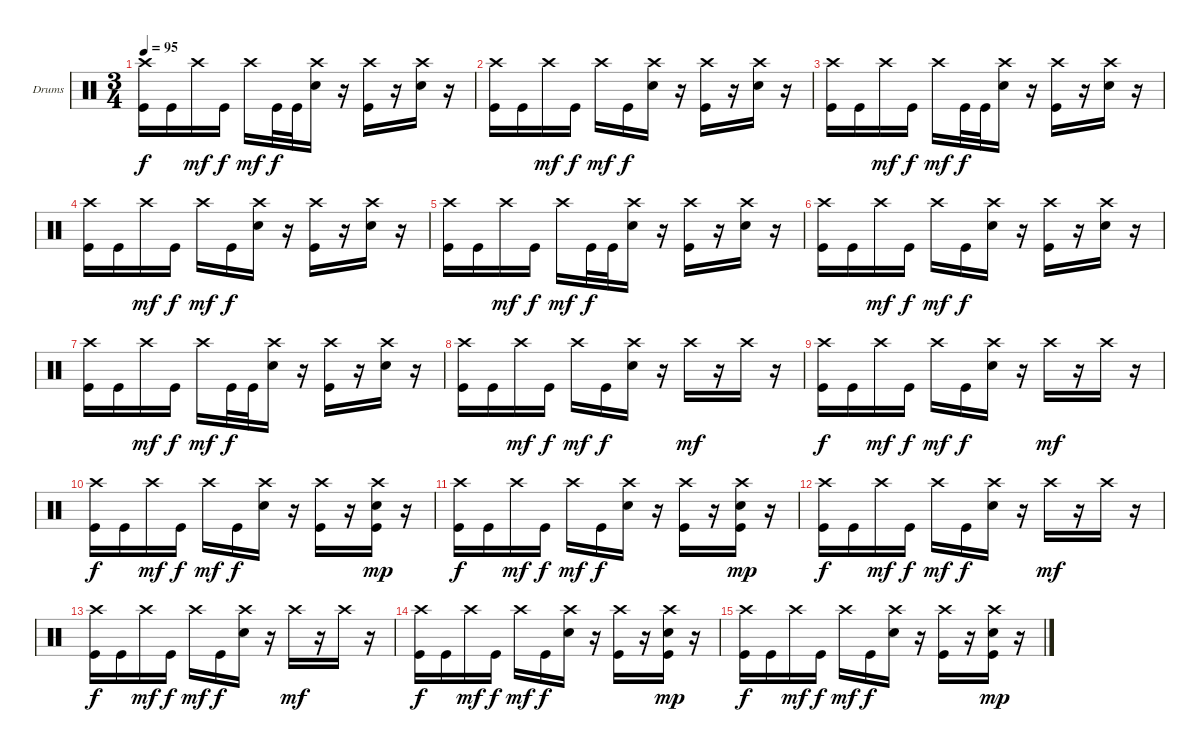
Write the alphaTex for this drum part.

\defaultSystemsLayout 4
\bracketExtendMode groupsimilarinstruments
\firstSystemTrackNameOrientation horizontal
\otherSystemsTrackNameOrientation horizontal
\track ("Drumkit" "Drums") {instrument percussion}
\staff {score}
\articulation defaults
\ts (3 4)
\tempo 95
\clef neutral
\ks c
("Kick (hit)" "Crash high (hit)").16{dy f} "Kick (hit)".16 "Crash high (hit)".16{dy mf} "Kick (hit)".16{dy f} "Crash high (hit)".16{dy mf} "Kick (hit)".32{dy f} "Kick (hit)".32 ("Snare (hit) 2" "Crash high (hit)").16 r.16 ("Kick (hit)" "Crash high (hit)").16 r.16 ("Snare (hit) 2" "Crash high (hit)").16 r.16 |
("Kick (hit)" "Crash high (hit)").16 "Kick (hit)".16 "Crash high (hit)".16{dy mf} "Kick (hit)".16{dy f} "Crash high (hit)".16{dy mf} "Kick (hit)".16{dy f} ("Snare (hit) 2" "Crash high (hit)").16 r.16 ("Kick (hit)" "Crash high (hit)").16 r.16 ("Snare (hit) 2" "Crash high (hit)").16 r.16 |
("Kick (hit)" "Crash high (hit)").16 "Kick (hit)".16 "Crash high (hit)".16{dy mf} "Kick (hit)".16{dy f} "Crash high (hit)".16{dy mf} "Kick (hit)".32{dy f} "Kick (hit)".32 ("Snare (hit) 2" "Crash high (hit)").16 r.16 ("Kick (hit)" "Crash high (hit)").16 r.16 ("Snare (hit) 2" "Crash high (hit)").16 r.16 |
("Kick (hit)" "Crash high (hit)").16 "Kick (hit)".16 "Crash high (hit)".16{dy mf} "Kick (hit)".16{dy f} "Crash high (hit)".16{dy mf} "Kick (hit)".16{dy f} ("Snare (hit) 2" "Crash high (hit)").16 r.16 ("Kick (hit)" "Crash high (hit)").16 r.16 ("Snare (hit) 2" "Crash high (hit)").16 r.16 |
("Kick (hit)" "Crash high (hit)").16 "Kick (hit)".16 "Crash high (hit)".16{dy mf} "Kick (hit)".16{dy f} "Crash high (hit)".16{dy mf} "Kick (hit)".32{dy f} "Kick (hit)".32 ("Snare (hit) 2" "Crash high (hit)").16 r.16 ("Kick (hit)" "Crash high (hit)").16 r.16 ("Snare (hit) 2" "Crash high (hit)").16 r.16 |
("Kick (hit)" "Crash high (hit)").16 "Kick (hit)".16 "Crash high (hit)".16{dy mf} "Kick (hit)".16{dy f} "Crash high (hit)".16{dy mf} "Kick (hit)".16{dy f} ("Snare (hit) 2" "Crash high (hit)").16 r.16 ("Kick (hit)" "Crash high (hit)").16 r.16 ("Snare (hit) 2" "Crash high (hit)").16 r.16 |
("Kick (hit)" "Crash high (hit)").16 "Kick (hit)".16 "Crash high (hit)".16{dy mf} "Kick (hit)".16{dy f} "Crash high (hit)".16{dy mf} "Kick (hit)".32{dy f} "Kick (hit)".32 ("Snare (hit) 2" "Crash high (hit)").16 r.16 ("Kick (hit)" "Crash high (hit)").16 r.16 ("Snare (hit) 2" "Crash high (hit)").16 r.16 |
("Kick (hit)" "Crash high (hit)").16 "Kick (hit)".16 "Crash high (hit)".16{dy mf} "Kick (hit)".16{dy f} "Crash high (hit)".16{dy mf} "Kick (hit)".16{dy f} ("Snare (hit) 2" "Crash high (hit)").16 r.16 "Crash high (hit)".16{dy mf} r.16 "Crash high (hit)".16 r.16 |
("Kick (hit)" "Crash high (hit)").16{dy f} "Kick (hit)".16 "Crash high (hit)".16{dy mf} "Kick (hit)".16{dy f} "Crash high (hit)".16{dy mf} "Kick (hit)".16{dy f} ("Snare (hit) 2" "Crash high (hit)").16 r.16 "Crash high (hit)".16{dy mf} r.16 "Crash high (hit)".16 r.16 |
("Kick (hit)" "Crash high (hit)").16{dy f} "Kick (hit)".16 "Crash high (hit)".16{dy mf} "Kick (hit)".16{dy f} "Crash high (hit)".16{dy mf} "Kick (hit)".16{dy f} ("Snare (hit) 2" "Crash high (hit)").16 r.16 ("Kick (hit)" "Crash high (hit)").16 r.16 ("Kick (hit)" "Snare (hit) 2" "Crash high (hit)").16{dy mp} r.16 |
("Kick (hit)" "Crash high (hit)").16{dy f} "Kick (hit)".16 "Crash high (hit)".16{dy mf} "Kick (hit)".16{dy f} "Crash high (hit)".16{dy mf} "Kick (hit)".16{dy f} ("Snare (hit) 2" "Crash high (hit)").16 r.16 ("Kick (hit)" "Crash high (hit)").16 r.16 ("Kick (hit)" "Snare (hit) 2" "Crash high (hit)").16{dy mp} r.16 |
("Kick (hit)" "Crash high (hit)").16{dy f} "Kick (hit)".16 "Crash high (hit)".16{dy mf} "Kick (hit)".16{dy f} "Crash high (hit)".16{dy mf} "Kick (hit)".16{dy f} ("Snare (hit) 2" "Crash high (hit)").16 r.16 "Crash high (hit)".16{dy mf} r.16 "Crash high (hit)".16 r.16 |
("Kick (hit)" "Crash high (hit)").16{dy f} "Kick (hit)".16 "Crash high (hit)".16{dy mf} "Kick (hit)".16{dy f} "Crash high (hit)".16{dy mf} "Kick (hit)".16{dy f} ("Snare (hit) 2" "Crash high (hit)").16 r.16 "Crash high (hit)".16{dy mf} r.16 "Crash high (hit)".16 r.16 |
("Kick (hit)" "Crash high (hit)").16{dy f} "Kick (hit)".16 "Crash high (hit)".16{dy mf} "Kick (hit)".16{dy f} "Crash high (hit)".16{dy mf} "Kick (hit)".16{dy f} ("Snare (hit) 2" "Crash high (hit)").16 r.16 ("Kick (hit)" "Crash high (hit)").16 r.16 ("Kick (hit)" "Snare (hit) 2" "Crash high (hit)").16{dy mp} r.16 |
("Kick (hit)" "Crash high (hit)").16{dy f} "Kick (hit)".16 "Crash high (hit)".16{dy mf} "Kick (hit)".16{dy f} "Crash high (hit)".16{dy mf} "Kick (hit)".16{dy f} ("Snare (hit) 2" "Crash high (hit)").16 r.16 ("Kick (hit)" "Crash high (hit)").16 r.16 ("Kick (hit)" "Snare (hit) 2" "Crash high (hit)").16{dy mp} r.16
